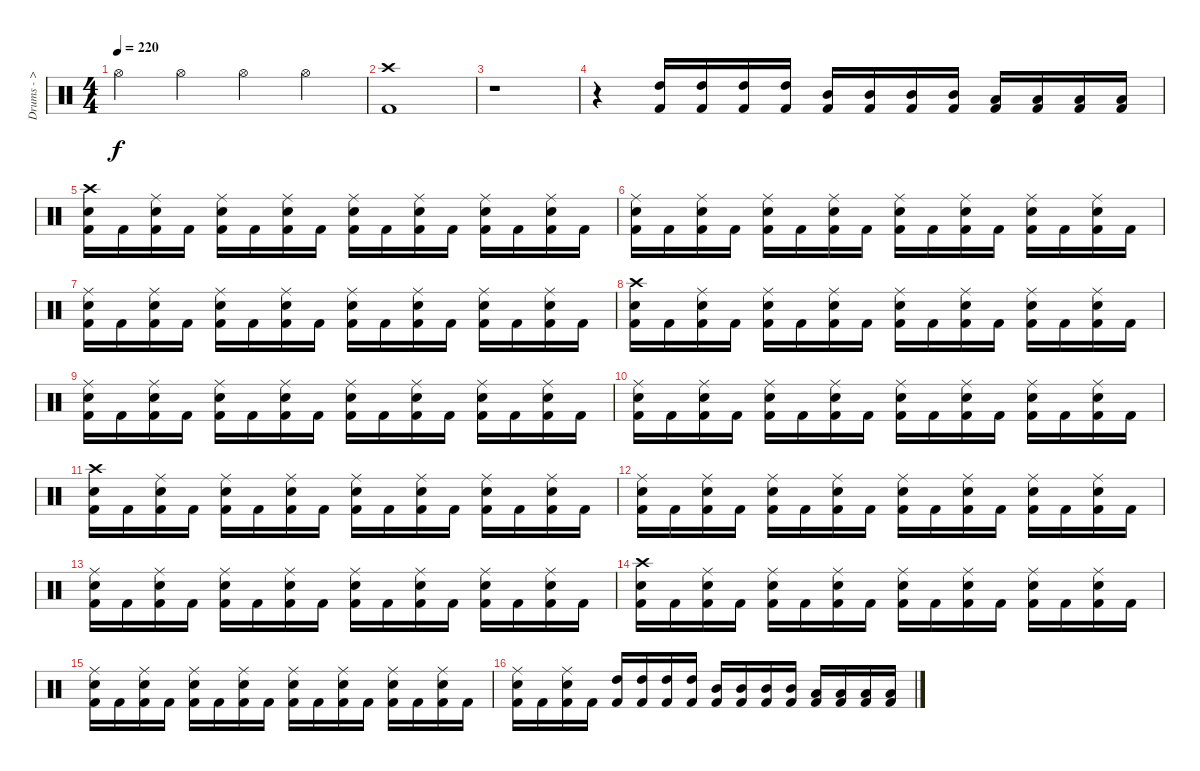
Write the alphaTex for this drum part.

\track ("Drums - > Nicholas" "Drums - > ") {instrument percussion}
\staff {score}
\articulation defaults
\ts (4 4)
\tempo 220
\clef neutral
\ks c "Hi-Hat (open)".4{dy f} "Hi-Hat (open)".4 "Hi-Hat (open)".4 "Hi-Hat (open)".4
|
("Kick (hit) 2" "Crash high (hit)").1 |
r.1 |
r.4 ("Kick (hit) 2" "High Tom (hit)").16 ("Kick (hit) 2" "High Tom (hit)").16 ("Kick (hit) 2" "High Tom (hit)").16 ("Kick (hit) 2" "High Tom (hit)").16 ("Kick (hit) 2" "Mid Tom (hit)").16 ("Kick (hit) 2" "Mid Tom (hit)").16 ("Kick (hit) 2" "Mid Tom (hit)").16 ("Kick (hit) 2" "Mid Tom (hit)").16 ("Kick (hit) 2" "Low Tom (hit)").16 ("Kick (hit) 2" "Low Tom (hit)").16 ("Kick (hit) 2" "Low Tom (hit)").16 ("Kick (hit) 2" "Low Tom (hit)").16 |
("Kick (hit) 2" "Snare (hit) 2" "Crash high (hit)").16 "Kick (hit) 2".16 ("Kick (hit) 2" "Snare (hit) 2" "Ride (middle)").16 "Kick (hit) 2".16 ("Kick (hit) 2" "Snare (hit) 2" "Ride (middle)").16 "Kick (hit) 2".16 ("Kick (hit) 2" "Snare (hit) 2" "Ride (middle)").16 "Kick (hit) 2".16 ("Kick (hit) 2" "Snare (hit) 2" "Ride (middle)").16 "Kick (hit) 2".16 ("Kick (hit) 2" "Snare (hit) 2" "Ride (middle)").16 "Kick (hit) 2".16 ("Kick (hit) 2" "Snare (hit) 2" "Ride (middle)").16 "Kick (hit) 2".16 ("Kick (hit) 2" "Snare (hit) 2" "Ride (middle)").16 "Kick (hit) 2".16 |
("Kick (hit) 2" "Snare (hit) 2" "Ride (middle)").16 "Kick (hit) 2".16 ("Kick (hit) 2" "Snare (hit) 2" "Ride (middle)").16 "Kick (hit) 2".16 ("Kick (hit) 2" "Snare (hit) 2" "Ride (middle)").16 "Kick (hit) 2".16 ("Kick (hit) 2" "Snare (hit) 2" "Ride (middle)").16 "Kick (hit) 2".16 ("Kick (hit) 2" "Snare (hit) 2" "Ride (middle)").16 "Kick (hit) 2".16 ("Kick (hit) 2" "Snare (hit) 2" "Ride (middle)").16 "Kick (hit) 2".16 ("Kick (hit) 2" "Snare (hit) 2" "Ride (middle)").16 "Kick (hit) 2".16 ("Kick (hit) 2" "Snare (hit) 2" "Ride (middle)").16 "Kick (hit) 2".16 |
("Kick (hit) 2" "Snare (hit) 2" "Ride (middle)").16 "Kick (hit) 2".16 ("Kick (hit) 2" "Snare (hit) 2" "Ride (middle)").16 "Kick (hit) 2".16 ("Kick (hit) 2" "Snare (hit) 2" "Ride (middle)").16 "Kick (hit) 2".16 ("Kick (hit) 2" "Snare (hit) 2" "Ride (middle)").16 "Kick (hit) 2".16 ("Kick (hit) 2" "Snare (hit) 2" "Ride (middle)").16 "Kick (hit) 2".16 ("Kick (hit) 2" "Snare (hit) 2" "Ride (middle)").16 "Kick (hit) 2".16 ("Kick (hit) 2" "Snare (hit) 2" "Ride (middle)").16 "Kick (hit) 2".16 ("Kick (hit) 2" "Snare (hit) 2" "Ride (middle)").16 "Kick (hit) 2".16 |
("Kick (hit) 2" "Snare (hit) 2" "Crash high (hit)").16 "Kick (hit) 2".16 ("Kick (hit) 2" "Snare (hit) 2" "Ride (middle)").16 "Kick (hit) 2".16 ("Kick (hit) 2" "Snare (hit) 2" "Ride (middle)").16 "Kick (hit) 2".16 ("Kick (hit) 2" "Snare (hit) 2" "Ride (middle)").16 "Kick (hit) 2".16 ("Kick (hit) 2" "Snare (hit) 2" "Ride (middle)").16 "Kick (hit) 2".16 ("Kick (hit) 2" "Snare (hit) 2" "Ride (middle)").16 "Kick (hit) 2".16 ("Kick (hit) 2" "Snare (hit) 2" "Ride (middle)").16 "Kick (hit) 2".16 ("Kick (hit) 2" "Snare (hit) 2" "Ride (middle)").16 "Kick (hit) 2".16 |
("Kick (hit) 2" "Snare (hit) 2" "Ride (middle)").16 "Kick (hit) 2".16 ("Kick (hit) 2" "Snare (hit) 2" "Ride (middle)").16 "Kick (hit) 2".16 ("Kick (hit) 2" "Snare (hit) 2" "Ride (middle)").16 "Kick (hit) 2".16 ("Kick (hit) 2" "Snare (hit) 2" "Ride (middle)").16 "Kick (hit) 2".16 ("Kick (hit) 2" "Snare (hit) 2" "Ride (middle)").16 "Kick (hit) 2".16 ("Kick (hit) 2" "Snare (hit) 2" "Ride (middle)").16 "Kick (hit) 2".16 ("Kick (hit) 2" "Snare (hit) 2" "Ride (middle)").16 "Kick (hit) 2".16 ("Kick (hit) 2" "Snare (hit) 2" "Ride (middle)").16 "Kick (hit) 2".16 |
("Kick (hit) 2" "Snare (hit) 2" "Ride (middle)").16 "Kick (hit) 2".16 ("Kick (hit) 2" "Snare (hit) 2" "Ride (middle)").16 "Kick (hit) 2".16 ("Kick (hit) 2" "Snare (hit) 2" "Ride (middle)").16 "Kick (hit) 2".16 ("Kick (hit) 2" "Snare (hit) 2" "Ride (middle)").16 "Kick (hit) 2".16 ("Kick (hit) 2" "Snare (hit) 2" "Ride (middle)").16 "Kick (hit) 2".16 ("Kick (hit) 2" "Snare (hit) 2" "Ride (middle)").16 "Kick (hit) 2".16 ("Kick (hit) 2" "Snare (hit) 2" "Ride (middle)").16 "Kick (hit) 2".16 ("Kick (hit) 2" "Snare (hit) 2" "Ride (middle)").16 "Kick (hit) 2".16 |
("Kick (hit) 2" "Snare (hit) 2" "Crash high (hit)").16 "Kick (hit) 2".16 ("Kick (hit) 2" "Snare (hit) 2" "Ride (middle)").16 "Kick (hit) 2".16 ("Kick (hit) 2" "Snare (hit) 2" "Ride (middle)").16 "Kick (hit) 2".16 ("Kick (hit) 2" "Snare (hit) 2" "Ride (middle)").16 "Kick (hit) 2".16 ("Kick (hit) 2" "Snare (hit) 2" "Ride (middle)").16 "Kick (hit) 2".16 ("Kick (hit) 2" "Snare (hit) 2" "Ride (middle)").16 "Kick (hit) 2".16 ("Kick (hit) 2" "Snare (hit) 2" "Ride (middle)").16 "Kick (hit) 2".16 ("Kick (hit) 2" "Snare (hit) 2" "Ride (middle)").16 "Kick (hit) 2".16 |
("Kick (hit) 2" "Snare (hit) 2" "Ride (middle)").16 "Kick (hit) 2".16 ("Kick (hit) 2" "Snare (hit) 2" "Ride (middle)").16 "Kick (hit) 2".16 ("Kick (hit) 2" "Snare (hit) 2" "Ride (middle)").16 "Kick (hit) 2".16 ("Kick (hit) 2" "Snare (hit) 2" "Ride (middle)").16 "Kick (hit) 2".16 ("Kick (hit) 2" "Snare (hit) 2" "Ride (middle)").16 "Kick (hit) 2".16 ("Kick (hit) 2" "Snare (hit) 2" "Ride (middle)").16 "Kick (hit) 2".16 ("Kick (hit) 2" "Snare (hit) 2" "Ride (middle)").16 "Kick (hit) 2".16 ("Kick (hit) 2" "Snare (hit) 2" "Ride (middle)").16 "Kick (hit) 2".16 |
("Kick (hit) 2" "Snare (hit) 2" "Ride (middle)").16 "Kick (hit) 2".16 ("Kick (hit) 2" "Snare (hit) 2" "Ride (middle)").16 "Kick (hit) 2".16 ("Kick (hit) 2" "Snare (hit) 2" "Ride (middle)").16 "Kick (hit) 2".16 ("Kick (hit) 2" "Snare (hit) 2" "Ride (middle)").16 "Kick (hit) 2".16 ("Kick (hit) 2" "Snare (hit) 2" "Ride (middle)").16 "Kick (hit) 2".16 ("Kick (hit) 2" "Snare (hit) 2" "Ride (middle)").16 "Kick (hit) 2".16 ("Kick (hit) 2" "Snare (hit) 2" "Ride (middle)").16 "Kick (hit) 2".16 ("Kick (hit) 2" "Snare (hit) 2" "Ride (middle)").16 "Kick (hit) 2".16 |
("Kick (hit) 2" "Snare (hit) 2" "Crash high (hit)").16 "Kick (hit) 2".16 ("Kick (hit) 2" "Snare (hit) 2" "Ride (middle)").16 "Kick (hit) 2".16 ("Kick (hit) 2" "Snare (hit) 2" "Ride (middle)").16 "Kick (hit) 2".16 ("Kick (hit) 2" "Snare (hit) 2" "Ride (middle)").16 "Kick (hit) 2".16 ("Kick (hit) 2" "Snare (hit) 2" "Ride (middle)").16 "Kick (hit) 2".16 ("Kick (hit) 2" "Snare (hit) 2" "Ride (middle)").16 "Kick (hit) 2".16 ("Kick (hit) 2" "Snare (hit) 2" "Ride (middle)").16 "Kick (hit) 2".16 ("Kick (hit) 2" "Snare (hit) 2" "Ride (middle)").16 "Kick (hit) 2".16 |
("Kick (hit) 2" "Snare (hit) 2" "Ride (middle)").16 "Kick (hit) 2".16 ("Kick (hit) 2" "Snare (hit) 2" "Ride (middle)").16 "Kick (hit) 2".16 ("Kick (hit) 2" "Snare (hit) 2" "Ride (middle)").16 "Kick (hit) 2".16 ("Kick (hit) 2" "Snare (hit) 2" "Ride (middle)").16 "Kick (hit) 2".16 ("Kick (hit) 2" "Snare (hit) 2" "Ride (middle)").16 "Kick (hit) 2".16 ("Kick (hit) 2" "Snare (hit) 2" "Ride (middle)").16 "Kick (hit) 2".16 ("Kick (hit) 2" "Snare (hit) 2" "Ride (middle)").16 "Kick (hit) 2".16 ("Kick (hit) 2" "Snare (hit) 2" "Ride (middle)").16 "Kick (hit) 2".16 |
("Kick (hit) 2" "Snare (hit) 2" "Ride (middle)").16 "Kick (hit) 2".16 ("Kick (hit) 2" "Snare (hit) 2" "Ride (middle)").16 "Kick (hit) 2".16 ("Kick (hit) 2" "High Tom (hit)").16 ("Kick (hit) 2" "High Tom (hit)").16 ("Kick (hit) 2" "High Tom (hit)").16 ("Kick (hit) 2" "High Tom (hit)").16 ("Kick (hit) 2" "Mid Tom (hit)").16 ("Kick (hit) 2" "Mid Tom (hit)").16 ("Kick (hit) 2" "Mid Tom (hit)").16 ("Kick (hit) 2" "Mid Tom (hit)").16 ("Kick (hit) 2" "Low Tom (hit)").16 ("Kick (hit) 2" "Low Tom (hit)").16 ("Kick (hit) 2" "Low Tom (hit)").16 ("Kick (hit) 2" "Low Tom (hit)").16
